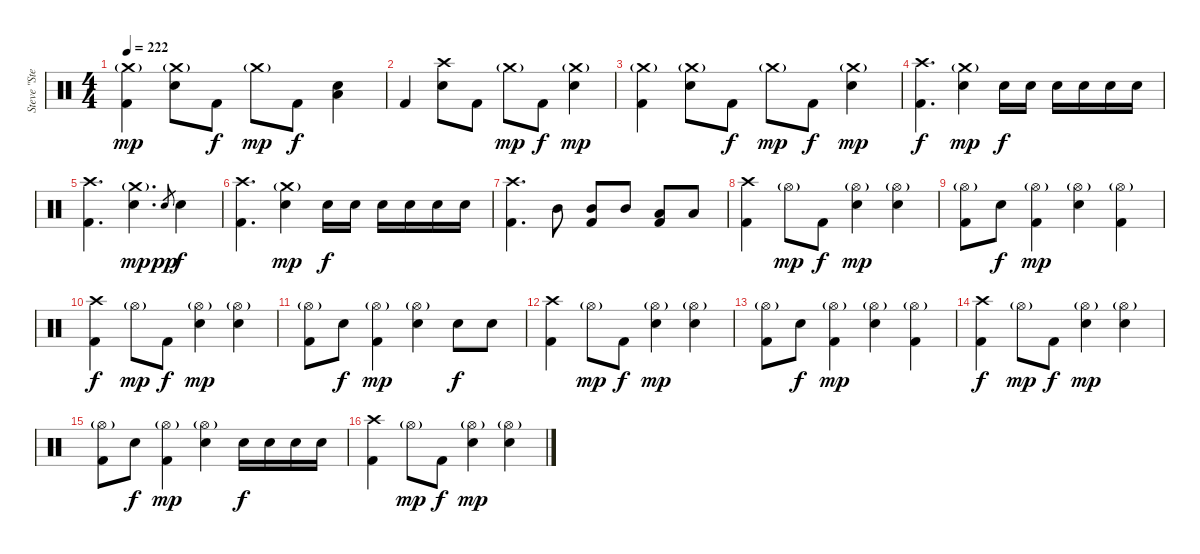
\track ("Steve \"Stevo32\" Jocz " "Steve \"Ste") {instrument percussion}
\staff {score}
\articulation defaults
\ts (4 4)
\tempo 222
\clef neutral
\ks c
("Crash medium (hit)"{g} "Kick (hit) 2").4{dy mp} ("Crash medium (hit)"{g} "Electric Snare (hit)").8 "Kick (hit) 2".8{dy f} "Crash medium (hit)"{g}.8{dy mp} "Kick (hit) 2".8{dy f} ("Electric Snare (hit)" "Low Tom (hit)").4 |
"Kick (hit) 2".4 ("Crash high (hit)" "Electric Snare (hit)").8 "Kick (hit) 2".8 "Crash medium (hit)"{g}.8{dy mp} "Kick (hit) 2".8{dy f} ("Crash medium (hit)"{g} "Electric Snare (hit)").4{dy mp} |
("Crash medium (hit)"{g} "Kick (hit) 2").4 ("Crash medium (hit)"{g} "Electric Snare (hit)").8 "Kick (hit) 2".8{dy f} "Crash medium (hit)"{g}.8{dy mp} "Kick (hit) 2".8{dy f} ("Crash medium (hit)"{g} "Electric Snare (hit)").4{dy mp} |
("Crash high (hit)" "Kick (hit) 2").4{d dy f} ("Crash medium (hit)"{g} "Electric Snare (hit)").4{dy mp} "Electric Snare (hit)".16{dy f} "Electric Snare (hit)".16 "Electric Snare (hit)".16 "Electric Snare (hit)".16 "Electric Snare (hit)".16 "Electric Snare (hit)".16 |
("Crash high (hit)" "Kick (hit) 2").4{d} ("Crash medium (hit)"{g} "Electric Snare (hit)").4{d dy mp} "Electric Snare (hit)".8{gr dy pp} "Electric Snare (hit)".4{dy f} |
("Crash high (hit)" "Kick (hit) 2").4{d} ("Crash medium (hit)"{g} "Electric Snare (hit)").4{dy mp} "Electric Snare (hit)".16{dy f} "Electric Snare (hit)".16 "Electric Snare (hit)".16 "Electric Snare (hit)".16 "Electric Snare (hit)".16 "Electric Snare (hit)".16 |
("Crash high (hit)" "Kick (hit) 2").4{d} "Mid Tom (hit)".8 ("Mid Tom (hit)" "Kick (hit) 2").8 "Mid Tom (hit)".8 ("Low Tom (hit)" "Kick (hit) 2").8 "Low Tom (hit)".8 |
("Crash high (hit)" "Kick (hit) 2").4 "Hi-Hat (open)"{g}.8{dy mp} "Kick (hit) 2".8{dy f} ("Hi-Hat (open)"{g} "Electric Snare (hit)").4{dy mp} ("Hi-Hat (open)"{g} "Electric Snare (hit)").4 |
("Hi-Hat (open)"{g} "Kick (hit) 2").8 "Electric Snare (hit)".8{dy f} ("Hi-Hat (open)"{g} "Kick (hit) 2").4{dy mp} ("Hi-Hat (open)"{g} "Electric Snare (hit)").4 ("Hi-Hat (open)"{g} "Kick (hit) 2").4 |
("Crash high (hit)" "Kick (hit) 2").4{dy f} "Hi-Hat (open)"{g}.8{dy mp} "Kick (hit) 2".8{dy f} ("Hi-Hat (open)"{g} "Electric Snare (hit)").4{dy mp} ("Hi-Hat (open)"{g} "Electric Snare (hit)").4 |
("Hi-Hat (open)"{g} "Kick (hit) 2").8 "Electric Snare (hit)".8{dy f} ("Hi-Hat (open)"{g} "Kick (hit) 2").4{dy mp} ("Hi-Hat (open)"{g} "Electric Snare (hit)").4 "Electric Snare (hit)".8{dy f} "Electric Snare (hit)".8 |
("Crash high (hit)" "Kick (hit) 2").4 "Hi-Hat (open)"{g}.8{dy mp} "Kick (hit) 2".8{dy f} ("Hi-Hat (open)"{g} "Electric Snare (hit)").4{dy mp} ("Hi-Hat (open)"{g} "Electric Snare (hit)").4 |
("Hi-Hat (open)"{g} "Kick (hit) 2").8 "Electric Snare (hit)".8{dy f} ("Hi-Hat (open)"{g} "Kick (hit) 2").4{dy mp} ("Hi-Hat (open)"{g} "Electric Snare (hit)").4 ("Hi-Hat (open)"{g} "Kick (hit) 2").4 |
("Crash high (hit)" "Kick (hit) 2").4{dy f} "Hi-Hat (open)"{g}.8{dy mp} "Kick (hit) 2".8{dy f} ("Hi-Hat (open)"{g} "Electric Snare (hit)").4{dy mp} ("Hi-Hat (open)"{g} "Electric Snare (hit)").4 |
("Hi-Hat (open)"{g} "Kick (hit) 2").8 "Electric Snare (hit)".8{dy f} ("Hi-Hat (open)"{g} "Kick (hit) 2").4{dy mp} ("Hi-Hat (open)"{g} "Electric Snare (hit)").4 "Electric Snare (hit)".16{dy f} "Electric Snare (hit)".16 "Electric Snare (hit)".16 "Electric Snare (hit)".16 |
("Crash high (hit)" "Kick (hit) 2").4 "Hi-Hat (open)"{g}.8{dy mp} "Kick (hit) 2".8{dy f} ("Hi-Hat (open)"{g} "Electric Snare (hit)").4{dy mp} ("Hi-Hat (open)"{g} "Electric Snare (hit)").4
